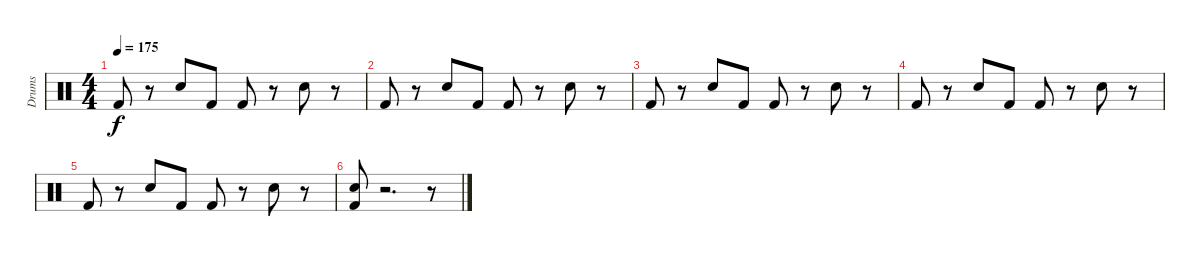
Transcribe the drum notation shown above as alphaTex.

\track ("Drums" "Drums") {instrument percussion}
\staff {score}
\articulation defaults
\ts (4 4)
\tempo 175
\clef neutral
\ks c "Kick (hit) 2".8{dy f}
r.8 "Electric Snare (hit)".8 "Kick (hit) 2".8 "Kick (hit) 2".8 r.8 "Electric Snare (hit)".8 r.8 |
"Kick (hit) 2".8 r.8 "Electric Snare (hit)".8 "Kick (hit) 2".8 "Kick (hit) 2".8 r.8 "Electric Snare (hit)".8 r.8 |
"Kick (hit) 2".8 r.8 "Electric Snare (hit)".8 "Kick (hit) 2".8 "Kick (hit) 2".8 r.8 "Electric Snare (hit)".8 r.8 |
"Kick (hit) 2".8 r.8 "Electric Snare (hit)".8 "Kick (hit) 2".8 "Kick (hit) 2".8 r.8 "Electric Snare (hit)".8 r.8 |
"Kick (hit) 2".8 r.8 "Electric Snare (hit)".8 "Kick (hit) 2".8 "Kick (hit) 2".8 r.8 "Electric Snare (hit)".8 r.8 |
("Electric Snare (hit)" "Kick (hit) 2").8 r.2{d} r.8
